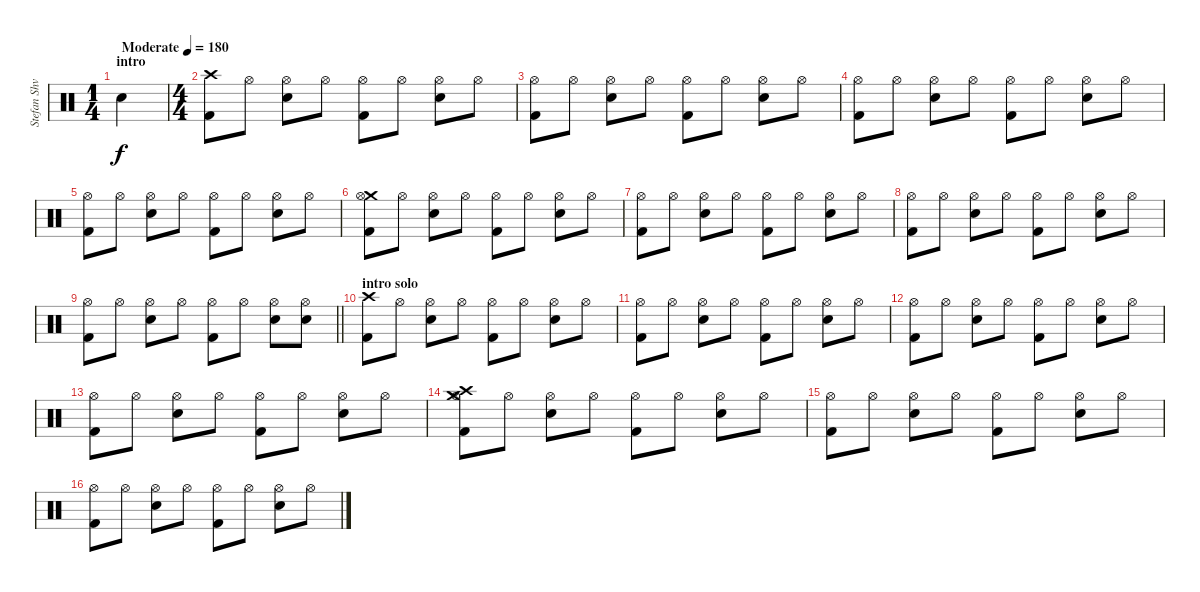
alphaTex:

\track ("Stefan Shvartsman" "Stefan Shv") {instrument percussion}
\staff {score}
\articulation defaults
\ts (1 4)
\section ("" "intro")
\tempo (180 "Moderate")
\clef neutral
\ks c "Snare (hit) 2".4{dy f}
|
\ts (4 4)
("Crash high (hit)" "Kick (hit) 2").8 "Hi-Hat (open)".8 ("Hi-Hat (open)" "Snare (hit) 2").8 "Hi-Hat (open)".8 ("Hi-Hat (open)" "Kick (hit) 2").8 "Hi-Hat (open)".8 ("Hi-Hat (open)" "Snare (hit) 2").8 "Hi-Hat (open)".8 |
("Hi-Hat (open)" "Kick (hit) 2").8 "Hi-Hat (open)".8 ("Hi-Hat (open)" "Snare (hit) 2").8 "Hi-Hat (open)".8 ("Hi-Hat (open)" "Kick (hit) 2").8 "Hi-Hat (open)".8 ("Hi-Hat (open)" "Snare (hit) 2").8 "Hi-Hat (open)".8 |
("Hi-Hat (open)" "Kick (hit) 2").8 "Hi-Hat (open)".8 ("Hi-Hat (open)" "Snare (hit) 2").8 "Hi-Hat (open)".8 ("Hi-Hat (open)" "Kick (hit) 2").8 "Hi-Hat (open)".8 ("Hi-Hat (open)" "Snare (hit) 2").8 "Hi-Hat (open)".8 |
("Hi-Hat (open)" "Kick (hit) 2").8 "Hi-Hat (open)".8 ("Hi-Hat (open)" "Snare (hit) 2").8 "Hi-Hat (open)".8 ("Hi-Hat (open)" "Kick (hit) 2").8 "Hi-Hat (open)".8 ("Hi-Hat (open)" "Snare (hit) 2").8 "Hi-Hat (open)".8 |
("Crash medium (hit)" "Hi-Hat (open)" "Kick (hit) 2").8 "Hi-Hat (open)".8 ("Hi-Hat (open)" "Snare (hit) 2").8 "Hi-Hat (open)".8 ("Hi-Hat (open)" "Kick (hit) 2").8 "Hi-Hat (open)".8 ("Hi-Hat (open)" "Snare (hit) 2").8 "Hi-Hat (open)".8 |
("Hi-Hat (open)" "Kick (hit) 2").8 "Hi-Hat (open)".8 ("Hi-Hat (open)" "Snare (hit) 2").8 "Hi-Hat (open)".8 ("Hi-Hat (open)" "Kick (hit) 2").8 "Hi-Hat (open)".8 ("Hi-Hat (open)" "Snare (hit) 2").8 "Hi-Hat (open)".8 |
("Hi-Hat (open)" "Kick (hit) 2").8 "Hi-Hat (open)".8 ("Hi-Hat (open)" "Snare (hit) 2").8 "Hi-Hat (open)".8 ("Hi-Hat (open)" "Kick (hit) 2").8 "Hi-Hat (open)".8 ("Hi-Hat (open)" "Snare (hit) 2").8 "Hi-Hat (open)".8 |
\barLineRight lightlight
("Hi-Hat (open)" "Kick (hit) 2").8 "Hi-Hat (open)".8 ("Hi-Hat (open)" "Snare (hit) 2").8 "Hi-Hat (open)".8 ("Hi-Hat (open)" "Kick (hit) 2").8 "Hi-Hat (open)".8 ("Hi-Hat (open)" "Snare (hit) 2").8 ("Hi-Hat (open)" "Snare (hit) 2").8 |
\section ("" "intro solo")
("Crash high (hit)" "Kick (hit) 2").8 "Hi-Hat (open)".8 ("Hi-Hat (open)" "Snare (hit) 2").8 "Hi-Hat (open)".8 ("Hi-Hat (open)" "Kick (hit) 2").8 "Hi-Hat (open)".8 ("Hi-Hat (open)" "Snare (hit) 2").8 "Hi-Hat (open)".8 |
("Hi-Hat (open)" "Kick (hit) 2").8 "Hi-Hat (open)".8 ("Hi-Hat (open)" "Snare (hit) 2").8 "Hi-Hat (open)".8 ("Hi-Hat (open)" "Kick (hit) 2").8 "Hi-Hat (open)".8 ("Hi-Hat (open)" "Snare (hit) 2").8 "Hi-Hat (open)".8 |
("Hi-Hat (open)" "Kick (hit) 2").8 "Hi-Hat (open)".8 ("Hi-Hat (open)" "Snare (hit) 2").8 "Hi-Hat (open)".8 ("Hi-Hat (open)" "Kick (hit) 2").8 "Hi-Hat (open)".8 ("Hi-Hat (open)" "Snare (hit) 2").8 "Hi-Hat (open)".8 |
("Hi-Hat (open)" "Kick (hit) 2").8 "Hi-Hat (open)".8 ("Hi-Hat (open)" "Snare (hit) 2").8 "Hi-Hat (open)".8 ("Hi-Hat (open)" "Kick (hit) 2").8 "Hi-Hat (open)".8 ("Hi-Hat (open)" "Snare (hit) 2").8 "Hi-Hat (open)".8 |
("Crash medium (hit)" "Hi-Hat (open)" "Kick (hit) 2" "Crash high (hit)").8 "Hi-Hat (open)".8 ("Hi-Hat (open)" "Snare (hit) 2").8 "Hi-Hat (open)".8 ("Hi-Hat (open)" "Kick (hit) 2").8 "Hi-Hat (open)".8 ("Hi-Hat (open)" "Snare (hit) 2").8 "Hi-Hat (open)".8 |
("Hi-Hat (open)" "Kick (hit) 2").8 "Hi-Hat (open)".8 ("Hi-Hat (open)" "Snare (hit) 2").8 "Hi-Hat (open)".8 ("Hi-Hat (open)" "Kick (hit) 2").8 "Hi-Hat (open)".8 ("Hi-Hat (open)" "Snare (hit) 2").8 "Hi-Hat (open)".8 |
("Hi-Hat (open)" "Kick (hit) 2").8 "Hi-Hat (open)".8 ("Hi-Hat (open)" "Snare (hit) 2").8 "Hi-Hat (open)".8 ("Hi-Hat (open)" "Kick (hit) 2").8 "Hi-Hat (open)".8 ("Hi-Hat (open)" "Snare (hit) 2").8 "Hi-Hat (open)".8
